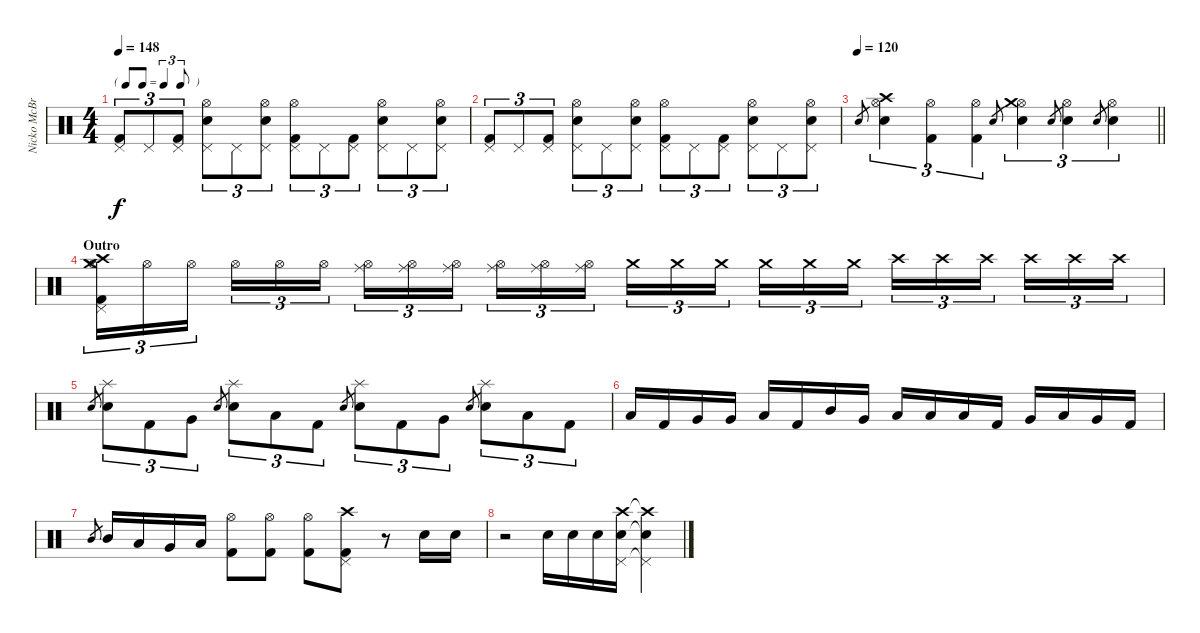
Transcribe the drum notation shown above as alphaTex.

\track ("Nicko McBrain" "Nicko McBr") {instrument percussion}
\staff {score}
\articulation defaults
\ts (4 4)
\tf triplet8th
\tempo 148
\clef neutral
\ks c
("Kick (hit) 2" "Pedal Hi-Hat (hit)").8{tu (3 2) dy f} "Pedal Hi-Hat (hit)".8{tu (3 2)} ("Kick (hit) 2" "Pedal Hi-Hat (hit)").8{tu (3 2)} ("Snare (hit) 2" "Pedal Hi-Hat (hit)" "Hi-Hat (open)").8{tu (3 2)} "Pedal Hi-Hat (hit)".8{tu (3 2)} ("Snare (hit) 2" "Pedal Hi-Hat (hit)" "Hi-Hat (open)").8{tu (3 2)} ("Kick (hit) 2" "Pedal Hi-Hat (hit)" "Hi-Hat (open)").8{tu (3 2)} "Pedal Hi-Hat (hit)".8{tu (3 2)} ("Kick (hit) 2" "Pedal Hi-Hat (hit)").8{tu (3 2)} ("Snare (hit) 2" "Pedal Hi-Hat (hit)" "Hi-Hat (open)").8{tu (3 2)} "Pedal Hi-Hat (hit)".8{tu (3 2)} ("Snare (hit) 2" "Pedal Hi-Hat (hit)" "Hi-Hat (open)").8{tu (3 2)} |
("Kick (hit) 2" "Pedal Hi-Hat (hit)").8{tu (3 2)} "Pedal Hi-Hat (hit)".8{tu (3 2)} ("Kick (hit) 2" "Pedal Hi-Hat (hit)").8{tu (3 2)} ("Snare (hit) 2" "Pedal Hi-Hat (hit)" "Hi-Hat (open)").8{tu (3 2)} "Pedal Hi-Hat (hit)".8{tu (3 2)} ("Snare (hit) 2" "Pedal Hi-Hat (hit)" "Hi-Hat (open)").8{tu (3 2)} ("Kick (hit) 2" "Pedal Hi-Hat (hit)" "Hi-Hat (open)").8{tu (3 2)} "Pedal Hi-Hat (hit)".8{tu (3 2)} ("Kick (hit) 2" "Pedal Hi-Hat (hit)").8{tu (3 2)} ("Snare (hit) 2" "Pedal Hi-Hat (hit)" "Hi-Hat (open)").8{tu (3 2)} "Pedal Hi-Hat (hit)".8{tu (3 2)} ("Snare (hit) 2" "Pedal Hi-Hat (hit)" "Hi-Hat (open)").8{tu (3 2)} |
\tempo 120
\barLineRight lightlight "Snare (hit) 2".8{gr}
("Snare (hit) 2" "Hi-Hat (open)" "Crash high (hit)").4{tu (3 2)} ("Kick (hit) 2" "Hi-Hat (open)").4{tu (3 2)} ("Kick (hit) 2" "Hi-Hat (open)").4{tu (3 2)} "Snare (hit) 2".8{gr} ("Snare (hit) 2" "Hi-Hat (open)" "Crash medium (hit)").4{tu (3 2)} "Snare (hit) 2".8{gr} ("Snare (hit) 2" "Hi-Hat (open)").4{tu (3 2)} "Snare (hit) 2".8{gr} ("Snare (hit) 2" "Hi-Hat (open)").4{tu (3 2)} |
\section ("" "Outro")
("Kick (hit) 2" "Pedal Hi-Hat (hit)" "Hi-Hat (open)" "Crash medium (hit)" "Crash high (hit)").16{tu (3 2)} "Hi-Hat (open)".16{tu (3 2)} "Hi-Hat (open)".16{tu (3 2) beam splitsecondary} "Hi-Hat (open)".16{tu (3 2)} "Hi-Hat (open)".16{tu (3 2)} "Hi-Hat (open)".16{tu (3 2)} ("Hi-Hat (open)" "Ride (middle)").16{tu (3 2)} ("Hi-Hat (open)" "Ride (middle)").16{tu (3 2)} ("Hi-Hat (open)" "Ride (middle)").16{tu (3 2) beam splitsecondary} ("Hi-Hat (open)" "Ride (middle)").16{tu (3 2)} ("Hi-Hat (open)" "Ride (middle)").16{tu (3 2)} ("Hi-Hat (open)" "Ride (middle)").16{tu (3 2)} "Crash medium (hit)".16{tu (3 2)} "Crash medium (hit)".16{tu (3 2)} "Crash medium (hit)".16{tu (3 2) beam splitsecondary} "Crash medium (hit)".16{tu (3 2)} "Crash medium (hit)".16{tu (3 2)} "Crash medium (hit)".16{tu (3 2)} "Crash high (hit)".16{tu (3 2)} "Crash high (hit)".16{tu (3 2)} "Crash high (hit)".16{tu (3 2) beam splitsecondary} "Crash high (hit)".16{tu (3 2)} "Crash high (hit)".16{tu (3 2)} "Crash high (hit)".16{tu (3 2)} |
"Snare (hit) 2".8{gr} ("Snare (hit) 2" "Splash (hit)").8{tu (3 2)} "Kick (hit) 2".8{tu (3 2)} "Very Low Tom (hit)".8{tu (3 2)} "Snare (hit) 2".8{gr} ("Snare (hit) 2" "Splash (hit)").8{tu (3 2)} "Low Floor Tom (hit)".8{tu (3 2)} "Kick (hit) 2".8{tu (3 2)} "Snare (hit) 2".8{gr} ("Snare (hit) 2" "Splash (hit)").8{tu (3 2)} "Kick (hit) 2".8{tu (3 2)} "Very Low Tom (hit)".8{tu (3 2)} "Snare (hit) 2".8{gr} ("Snare (hit) 2" "Splash (hit)").8{tu (3 2)} "Low Floor Tom (hit)".8{tu (3 2)} "Kick (hit) 2".8{tu (3 2)} |
"Low Tom (hit)".16 "Kick (hit) 2".16 "Very Low Tom (hit)".16 "Very Low Tom (hit)".16 "Low Floor Tom (hit)".16 "Kick (hit) 2".16 "Mid Tom (hit)".16 "Very Low Tom (hit)".16 "Low Floor Tom (hit)".16 "Low Floor Tom (hit)".16 "Low Floor Tom (hit)".16 "Kick (hit) 2".16 "Very Low Tom (hit)".16 "Low Floor Tom (hit)".16 "Very Low Tom (hit)".16 "Kick (hit) 2".16 |
"Mid Tom (hit)".8{gr} "Mid Tom (hit)".16 "Low Tom (hit)".16 "Very Low Tom (hit)".16 "Low Floor Tom (hit)".16 ("Kick (hit) 2" "Hi-Hat (open)").8 ("Kick (hit) 2" "Hi-Hat (open)").8 ("Kick (hit) 2" "Hi-Hat (open)").8 ("Kick (hit) 2" "Pedal Hi-Hat (hit)" "Crash high (hit)").8 r.8 "Snare (hit) 2".16 "Snare (hit) 2".16 |
r.2 "Snare (hit) 2".16 "Snare (hit) 2".16 "Snare (hit) 2".16 ("Snare (hit) 2" "Pedal Hi-Hat (hit)" "Crash high (hit)").16 ("Snare (hit) 2"{t} "Pedal Hi-Hat (hit)"{t} "Crash high (hit)"{t}).4
